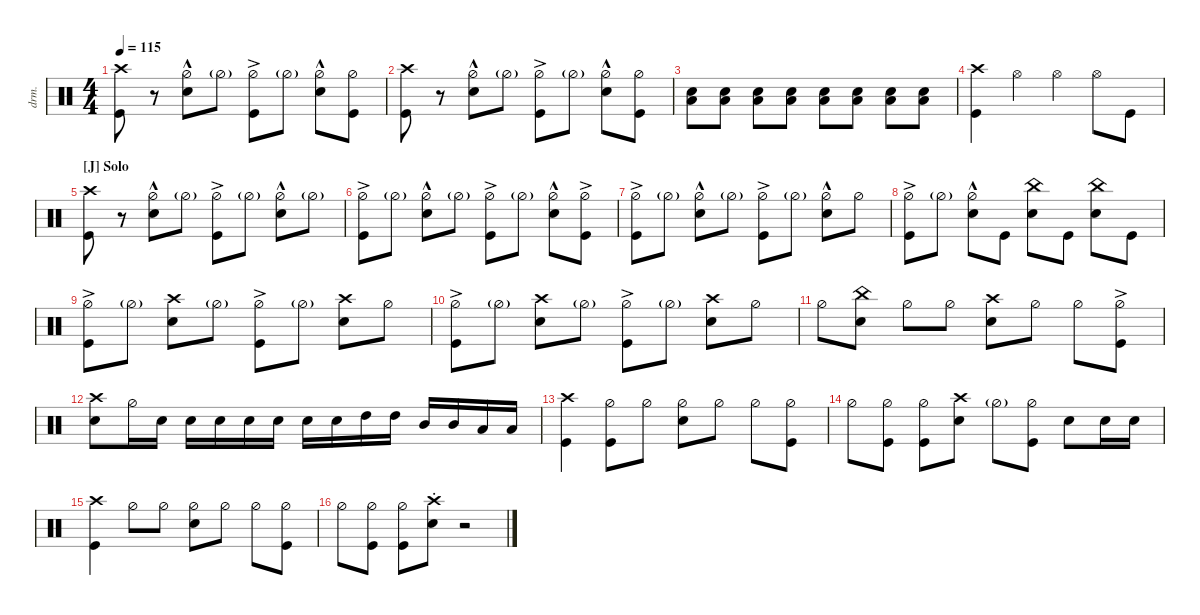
\defaultSystemsLayout 4
\hideDynamics
\bracketExtendMode nobrackets
\otherSystemsTrackNameOrientation horizontal
\track ("Drums" "drm.") {multiBarRest instrument percussion}
\staff
\articulation defaults
\ts (4 4)
\tempo 115
\clef neutral
\ks c
("Kick (hit)" "Crash high (hit)").8{dy f} r.8 ("Hi-Hat (half)"{hac} "Snare (hit) 2").8 "Hi-Hat (half)"{g}.8 ("Kick (hit)" "Hi-Hat (half)"{ac}).8 "Hi-Hat (half)"{g}.8 ("Hi-Hat (half)"{hac} "Snare (hit) 2").8 ("Hi-Hat (half)" "Kick (hit)").8 |
("Kick (hit)" "Crash high (hit)").8 r.8 ("Hi-Hat (half)"{hac} "Snare (hit) 2").8 "Hi-Hat (half)"{g}.8 ("Kick (hit)" "Hi-Hat (half)"{ac}).8 "Hi-Hat (half)"{g}.8 ("Hi-Hat (half)"{hac} "Snare (hit) 2").8 ("Hi-Hat (half)" "Kick (hit)").8 |
("Snare (hit) 2" "Low Tom (hit)").8{dy mp} ("Snare (hit) 2" "Low Tom (hit)").8 ("Snare (hit) 2" "Low Tom (hit)").8{dy mf} ("Snare (hit) 2" "Low Tom (hit)").8 ("Snare (hit) 2" "Low Tom (hit)").8{dy f} ("Snare (hit) 2" "Low Tom (hit)").8 ("Snare (hit) 2" "Low Tom (hit)").8 ("Snare (hit) 2" "Low Tom (hit)").8 |
("Kick (hit)" "Crash high (hit)").4 "Hi-Hat (open)".4 "Hi-Hat (open)".4 "Hi-Hat (open)".8 "Kick (hit)".8 |
\section ("J" "Solo")
("Kick (hit)" "Crash high (hit)").8 r.8 ("Hi-Hat (half)"{hac} "Snare (hit) 2").8 "Hi-Hat (half)"{g}.8 ("Kick (hit)" "Hi-Hat (half)"{ac}).8 "Hi-Hat (half)"{g}.8 ("Hi-Hat (half)"{hac} "Snare (hit) 2").8 "Hi-Hat (half)"{g}.8 |
("Kick (hit)" "Hi-Hat (half)"{ac}).8 "Hi-Hat (half)"{g}.8 ("Hi-Hat (half)"{hac} "Snare (hit) 2").8 "Hi-Hat (half)"{g}.8 ("Kick (hit)" "Hi-Hat (half)"{ac}).8 "Hi-Hat (half)"{g}.8 ("Hi-Hat (half)"{hac} "Snare (hit) 2").8 ("Hi-Hat (half)"{ac} "Kick (hit)").8 |
("Kick (hit)" "Hi-Hat (half)"{ac}).8 "Hi-Hat (half)"{g}.8 ("Hi-Hat (half)"{hac} "Snare (hit) 2").8 "Hi-Hat (half)"{g}.8 ("Kick (hit)" "Hi-Hat (half)"{ac}).8 "Hi-Hat (half)"{g}.8 ("Hi-Hat (half)"{hac} "Snare (hit) 2").8 "Hi-Hat (half)".8 |
("Kick (hit)" "Hi-Hat (half)"{ac}).8 "Hi-Hat (half)"{g}.8 ("Hi-Hat (half)"{hac} "Snare (hit) 2").8 "Kick (hit)".8 ("Snare (hit) 2" "China (hit)").8 "Kick (hit)".8 ("Snare (hit) 2" "China (hit)").8 "Kick (hit)".8 |
("Kick (hit)" "Hi-Hat (half)"{ac}).8 "Hi-Hat (half)"{g}.8 ("Snare (hit) 2" "Crash high (hit)").8 "Hi-Hat (half)"{g}.8 ("Kick (hit)" "Hi-Hat (half)"{ac}).8 "Hi-Hat (half)"{g}.8 ("Snare (hit) 2" "Crash high (hit)").8 "Hi-Hat (half)".8 |
("Kick (hit)" "Hi-Hat (half)"{ac}).8 "Hi-Hat (half)"{g}.8 ("Snare (hit) 2" "Crash high (hit)").8 "Hi-Hat (half)"{g}.8 ("Kick (hit)" "Hi-Hat (half)"{ac}).8 "Hi-Hat (half)"{g}.8 ("Snare (hit) 2" "Crash high (hit)").8 "Hi-Hat (half)".8 |
"Hi-Hat (half)".8 ("Snare (hit) 2" "China (hit)").8 "Hi-Hat (half)".8 "Hi-Hat (half)".8 ("Snare (hit) 2" "Crash high (hit)").8 "Hi-Hat (half)".8 "Hi-Hat (half)".8 ("Kick (hit)" "Hi-Hat (half)"{ac}).8 |
("Snare (hit) 2" "Crash high (hit)").8 "Hi-Hat (half)".16 "Snare (hit) 2".16 "Snare (hit) 2".16 "Snare (hit) 2".16 "Snare (hit) 2".16 "Snare (hit) 2".16 "Snare (hit) 2".16 "Snare (hit) 2".16 "High Tom (hit)".16{dy ff} "High Tom (hit)".16 "Mid Tom (hit)".16 "Mid Tom (hit)".16 "Low Tom (hit)".16 "Low Tom (hit)".16 |
("Kick (hit)" "Crash high (hit)").4{dy f} ("Kick (hit)" "Hi-Hat (half)").8 "Hi-Hat (half)".8 ("Hi-Hat (half)" "Snare (hit) 2").8 "Hi-Hat (half)".8 "Hi-Hat (half)".8 ("Kick (hit)" "Hi-Hat (half)").8 |
"Hi-Hat (half)".8 ("Hi-Hat (half)" "Kick (hit)").8 ("Hi-Hat (half)" "Kick (hit)").8 ("Snare (hit) 2" "Crash high (hit)").8 "Hi-Hat (half)"{g}.8 ("Hi-Hat (half)" "Kick (hit)").8 "Snare (hit) 2".8 "Snare (hit) 2".16 "Snare (hit) 2".16 |
("Kick (hit)" "Crash high (hit)").4 "Hi-Hat (half)".8 "Hi-Hat (half)".8 ("Hi-Hat (half)" "Snare (hit) 2").8 "Hi-Hat (half)".8 "Hi-Hat (half)".8 ("Kick (hit)" "Hi-Hat (half)").8 |
"Hi-Hat (half)".8 ("Hi-Hat (half)" "Kick (hit)").8 ("Hi-Hat (half)" "Kick (hit)").8 ("Snare (hit) 2" "Crash high (hit)"{st}).8 r.2
